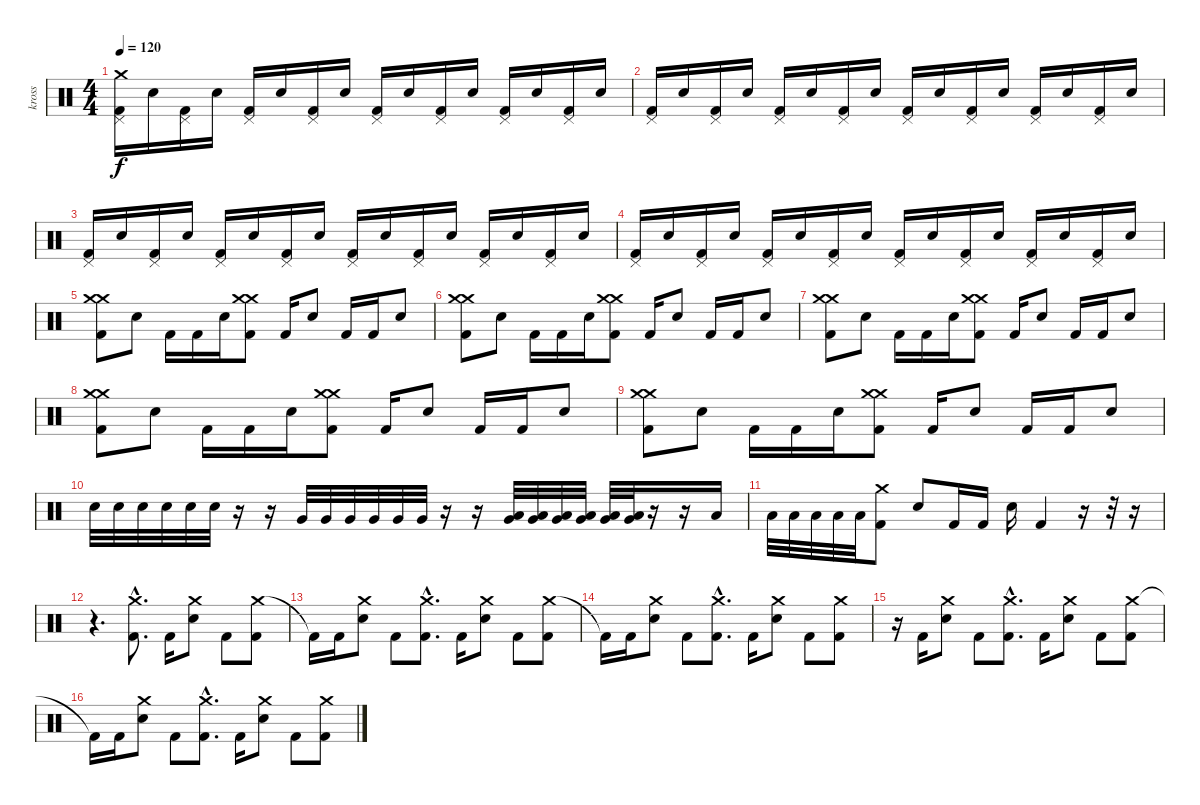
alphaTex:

\track ("kross" "kross") {instrument percussion}
\staff {score}
\articulation defaults
\ts (4 4)
\tempo 120
\clef neutral
\ks c
("Crash medium (hit)" "Pedal Hi-Hat (hit)" "Kick (hit) 2").16{dy f} "Electric Snare (hit)".16 ("Pedal Hi-Hat (hit)" "Kick (hit) 2").16 "Electric Snare (hit)".16 ("Pedal Hi-Hat (hit)" "Kick (hit) 2").16 "Electric Snare (hit)".16 ("Pedal Hi-Hat (hit)" "Kick (hit) 2").16 "Electric Snare (hit)".16 ("Pedal Hi-Hat (hit)" "Kick (hit) 2").16 "Electric Snare (hit)".16 ("Pedal Hi-Hat (hit)" "Kick (hit) 2").16 "Electric Snare (hit)".16 ("Pedal Hi-Hat (hit)" "Kick (hit) 2").16 "Electric Snare (hit)".16 ("Pedal Hi-Hat (hit)" "Kick (hit) 2").16 "Electric Snare (hit)".16 |
("Pedal Hi-Hat (hit)" "Kick (hit) 2").16 "Electric Snare (hit)".16 ("Pedal Hi-Hat (hit)" "Kick (hit) 2").16 "Electric Snare (hit)".16 ("Pedal Hi-Hat (hit)" "Kick (hit) 2").16 "Electric Snare (hit)".16 ("Pedal Hi-Hat (hit)" "Kick (hit) 2").16 "Electric Snare (hit)".16 ("Pedal Hi-Hat (hit)" "Kick (hit) 2").16 "Electric Snare (hit)".16 ("Pedal Hi-Hat (hit)" "Kick (hit) 2").16 "Electric Snare (hit)".16 ("Pedal Hi-Hat (hit)" "Kick (hit) 2").16 "Electric Snare (hit)".16 ("Pedal Hi-Hat (hit)" "Kick (hit) 2").16 "Electric Snare (hit)".16 |
("Pedal Hi-Hat (hit)" "Kick (hit) 2").16 "Electric Snare (hit)".16 ("Pedal Hi-Hat (hit)" "Kick (hit) 2").16 "Electric Snare (hit)".16 ("Pedal Hi-Hat (hit)" "Kick (hit) 2").16 "Electric Snare (hit)".16 ("Pedal Hi-Hat (hit)" "Kick (hit) 2").16 "Electric Snare (hit)".16 ("Pedal Hi-Hat (hit)" "Kick (hit) 2").16 "Electric Snare (hit)".16 ("Pedal Hi-Hat (hit)" "Kick (hit) 2").16 "Electric Snare (hit)".16 ("Pedal Hi-Hat (hit)" "Kick (hit) 2").16 "Electric Snare (hit)".16 ("Pedal Hi-Hat (hit)" "Kick (hit) 2").16 "Electric Snare (hit)".16 |
("Pedal Hi-Hat (hit)" "Kick (hit) 2").16 "Electric Snare (hit)".16 ("Pedal Hi-Hat (hit)" "Kick (hit) 2").16 "Electric Snare (hit)".16 ("Pedal Hi-Hat (hit)" "Kick (hit) 2").16 "Electric Snare (hit)".16 ("Pedal Hi-Hat (hit)" "Kick (hit) 2").16 "Electric Snare (hit)".16 ("Pedal Hi-Hat (hit)" "Kick (hit) 2").16 "Electric Snare (hit)".16 ("Pedal Hi-Hat (hit)" "Kick (hit) 2").16 "Electric Snare (hit)".16 ("Pedal Hi-Hat (hit)" "Kick (hit) 2").16 "Electric Snare (hit)".16 ("Pedal Hi-Hat (hit)" "Kick (hit) 2").16 "Electric Snare (hit)".16 |
("Crash medium (hit)" "Crash medium (hit)" "Kick (hit) 2").8 "Electric Snare (hit)".8 "Kick (hit) 2".16 "Kick (hit) 2".16 "Electric Snare (hit)".16 ("Crash medium (hit)" "Crash medium (hit)" "Kick (hit) 2").8 "Kick (hit) 2".16 "Electric Snare (hit)".8 "Kick (hit) 2".16 "Kick (hit) 2".16 "Electric Snare (hit)".8 |
("Crash medium (hit)" "Crash medium (hit)" "Kick (hit) 2").8 "Electric Snare (hit)".8 "Kick (hit) 2".16 "Kick (hit) 2".16 "Electric Snare (hit)".16 ("Crash medium (hit)" "Crash medium (hit)" "Kick (hit) 2").8 "Kick (hit) 2".16 "Electric Snare (hit)".8 "Kick (hit) 2".16 "Kick (hit) 2".16 "Electric Snare (hit)".8 |
("Crash medium (hit)" "Crash medium (hit)" "Kick (hit) 2").8 "Electric Snare (hit)".8 "Kick (hit) 2".16 "Kick (hit) 2".16 "Electric Snare (hit)".16 ("Crash medium (hit)" "Crash medium (hit)" "Kick (hit) 2").8 "Kick (hit) 2".16 "Electric Snare (hit)".8 "Kick (hit) 2".16 "Kick (hit) 2".16 "Electric Snare (hit)".8 |
("Crash medium (hit)" "Crash medium (hit)" "Kick (hit) 2").8 "Electric Snare (hit)".8 "Kick (hit) 2".16 "Kick (hit) 2".16 "Electric Snare (hit)".16 ("Crash medium (hit)" "Crash medium (hit)" "Kick (hit) 2").8 "Kick (hit) 2".16 "Electric Snare (hit)".8 "Kick (hit) 2".16 "Kick (hit) 2".16 "Electric Snare (hit)".8 |
("Crash medium (hit)" "Crash medium (hit)" "Kick (hit) 2").8 "Electric Snare (hit)".8 "Kick (hit) 2".16 "Kick (hit) 2".16 "Electric Snare (hit)".16 ("Crash medium (hit)" "Crash medium (hit)" "Kick (hit) 2").8 "Kick (hit) 2".16 "Electric Snare (hit)".8 "Kick (hit) 2".16 "Kick (hit) 2".16 "Electric Snare (hit)".8 |
"Snare (hit) 2".32 "Snare (hit) 2".32 "Snare (hit) 2".32 "Snare (hit) 2".32 "Snare (hit) 2".32 "Snare (hit) 2".32 r.16 r.16 "Very Low Tom (hit)".32 "Very Low Tom (hit)".32 "Very Low Tom (hit)".32 "Very Low Tom (hit)".32 "Very Low Tom (hit)".32 "Very Low Tom (hit)".32 r.16 r.16 ("Very Low Tom (hit)" "Low Floor Tom (hit)").32 ("Very Low Tom (hit)" "Low Floor Tom (hit)").32 ("Very Low Tom (hit)" "Low Floor Tom (hit)").32 ("Very Low Tom (hit)" "Low Floor Tom (hit)").32 ("Very Low Tom (hit)" "Low Floor Tom (hit)").32 ("Very Low Tom (hit)" "Low Floor Tom (hit)").32 r.16 r.16 "Low Floor Tom (hit)".16 |
"Low Floor Tom (hit)".32 "Low Floor Tom (hit)".32 "Low Floor Tom (hit)".32 "Low Floor Tom (hit)".32 "Low Floor Tom (hit)".32 ("Crash medium (hit)" "Kick (hit) 2").8 "Electric Snare (hit)".8 "Kick (hit) 2".16 "Kick (hit) 2".16 "Electric Snare (hit)".16 "Kick (hit) 2".4 r.16 r.32 r.16 |
r.4{d} ("Crash medium (hit)"{hac} "Kick (hit) 2"{hac}).8{d} "Kick (hit) 2".16 ("Crash medium (hit)" "Electric Snare (hit)").8 "Kick (hit) 2".8 ("Crash medium (hit)" "Kick (hit) 2").8 |
"Kick (hit) 2"{t}.16 "Kick (hit) 2".16 ("Crash medium (hit)" "Electric Snare (hit)").8 "Kick (hit) 2".8 ("Crash medium (hit)"{hac} "Kick (hit) 2"{hac}).8{d} "Kick (hit) 2".16 ("Crash medium (hit)" "Electric Snare (hit)").8 "Kick (hit) 2".8 ("Crash medium (hit)" "Kick (hit) 2").8 |
"Kick (hit) 2"{t}.16 "Kick (hit) 2".16 ("Crash medium (hit)" "Electric Snare (hit)").8 "Kick (hit) 2".8 ("Crash medium (hit)"{hac} "Kick (hit) 2"{hac}).8{d} "Kick (hit) 2".16 ("Crash medium (hit)" "Electric Snare (hit)").8 "Kick (hit) 2".8 ("Crash medium (hit)" "Kick (hit) 2").8 |
r.16 "Kick (hit) 2".16 ("Crash medium (hit)" "Electric Snare (hit)").8 "Kick (hit) 2".8 ("Crash medium (hit)"{hac} "Kick (hit) 2"{hac}).8{d} "Kick (hit) 2".16 ("Crash medium (hit)" "Electric Snare (hit)").8 "Kick (hit) 2".8 ("Crash medium (hit)" "Kick (hit) 2").8 |
"Kick (hit) 2"{t}.16 "Kick (hit) 2".16 ("Crash medium (hit)" "Electric Snare (hit)").8 "Kick (hit) 2".8 ("Crash medium (hit)"{hac} "Kick (hit) 2"{hac}).8{d} "Kick (hit) 2".16 ("Crash medium (hit)" "Electric Snare (hit)").8 "Kick (hit) 2".8 ("Crash medium (hit)" "Kick (hit) 2").8
